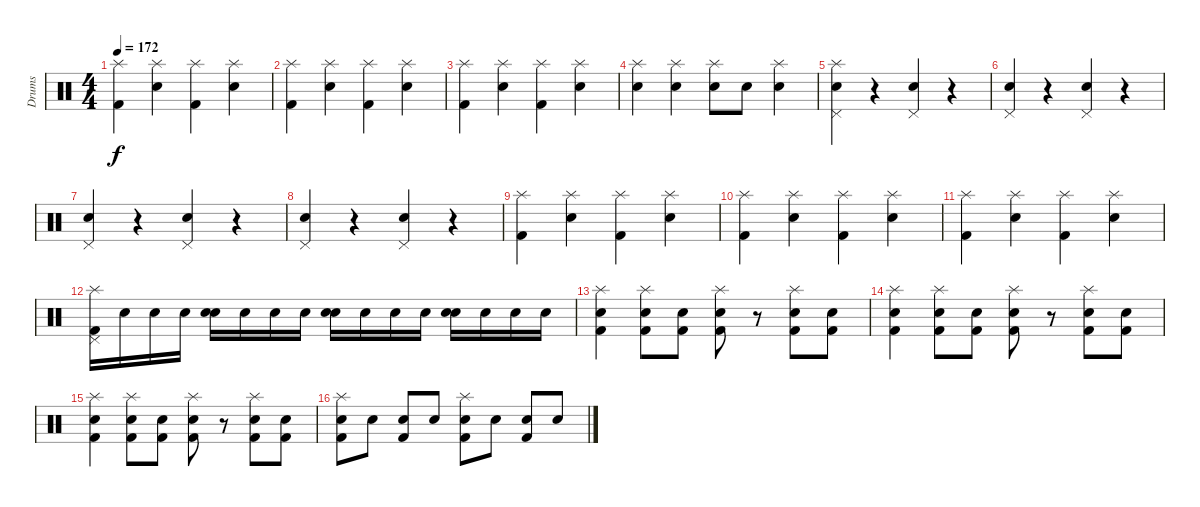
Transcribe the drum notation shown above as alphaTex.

\track ("Drums" "Drums") {instrument percussion}
\staff {score}
\articulation defaults
\ts (4 4)
\tempo 172
\clef neutral
\ks c
("Splash (hit)" "Kick (hit) 2").4{dy f} ("Splash (hit)" "Snare (hit) 2").4 ("Splash (hit)" "Kick (hit) 2").4 ("Splash (hit)" "Snare (hit) 2").4 |
("Splash (hit)" "Kick (hit) 2").4 ("Splash (hit)" "Snare (hit) 2").4 ("Splash (hit)" "Kick (hit) 2").4 ("Splash (hit)" "Snare (hit) 2").4 |
("Splash (hit)" "Kick (hit) 2").4 ("Splash (hit)" "Snare (hit) 2").4 ("Splash (hit)" "Kick (hit) 2").4 ("Splash (hit)" "Snare (hit) 2").4 |
("Splash (hit)" "Snare (hit) 2").4 ("Splash (hit)" "Snare (hit) 2").4 ("Splash (hit)" "Snare (hit) 2").8 "Snare (hit) 2".8 ("Splash (hit)" "Snare (hit) 2").4 |
("Splash (hit)" "Snare (hit) 2" "Pedal Hi-Hat (hit)").4 r.4 ("Snare (hit) 2" "Pedal Hi-Hat (hit)").4 r.4 |
("Snare (hit) 2" "Pedal Hi-Hat (hit)").4 r.4 ("Snare (hit) 2" "Pedal Hi-Hat (hit)").4 r.4 |
("Snare (hit) 2" "Pedal Hi-Hat (hit)").4 r.4 ("Snare (hit) 2" "Pedal Hi-Hat (hit)").4 r.4 |
("Snare (hit) 2" "Pedal Hi-Hat (hit)").4 r.4 ("Snare (hit) 2" "Pedal Hi-Hat (hit)").4 r.4 |
("Splash (hit)" "Kick (hit) 2").4 ("Splash (hit)" "Snare (hit) 2").4 ("Splash (hit)" "Kick (hit) 2").4 ("Splash (hit)" "Snare (hit) 2").4 |
("Splash (hit)" "Kick (hit) 2").4 ("Splash (hit)" "Snare (hit) 2").4 ("Splash (hit)" "Kick (hit) 2").4 ("Splash (hit)" "Snare (hit) 2").4 |
("Splash (hit)" "Kick (hit) 2").4 ("Splash (hit)" "Snare (hit) 2").4 ("Splash (hit)" "Kick (hit) 2").4 ("Splash (hit)" "Snare (hit) 2").4 |
("Splash (hit)" "Kick (hit) 2" "Pedal Hi-Hat (hit)").16 "Snare (hit) 2".16 "Snare (hit) 2".16 "Snare (hit) 2".16 ("Snare (hit) 2" "Electric Snare (hit)").16 "Snare (hit) 2".16 "Snare (hit) 2".16 "Snare (hit) 2".16 ("Snare (hit) 2" "Electric Snare (hit)").16 "Snare (hit) 2".16 "Snare (hit) 2".16 "Snare (hit) 2".16 ("Electric Snare (hit)" "Snare (hit) 2").16 "Snare (hit) 2".16 "Snare (hit) 2".16 "Snare (hit) 2".16 |
("Splash (hit)" "Kick (hit) 2" "Electric Snare (hit)").4 ("Splash (hit)" "Kick (hit) 2" "Electric Snare (hit)").8 ("Kick (hit) 2" "Electric Snare (hit)").8 ("Splash (hit)" "Kick (hit) 2" "Electric Snare (hit)").8 r.8 ("Splash (hit)" "Kick (hit) 2" "Electric Snare (hit)").8 ("Kick (hit) 2" "Electric Snare (hit)").8 |
("Splash (hit)" "Kick (hit) 2" "Electric Snare (hit)").4 ("Splash (hit)" "Kick (hit) 2" "Electric Snare (hit)").8 ("Kick (hit) 2" "Electric Snare (hit)").8 ("Splash (hit)" "Kick (hit) 2" "Electric Snare (hit)").8 r.8 ("Splash (hit)" "Kick (hit) 2" "Electric Snare (hit)").8 ("Kick (hit) 2" "Electric Snare (hit)").8 |
("Splash (hit)" "Kick (hit) 2" "Electric Snare (hit)").4 ("Splash (hit)" "Kick (hit) 2" "Electric Snare (hit)").8 ("Kick (hit) 2" "Electric Snare (hit)").8 ("Splash (hit)" "Kick (hit) 2" "Electric Snare (hit)").8 r.8 ("Splash (hit)" "Kick (hit) 2" "Electric Snare (hit)").8 ("Kick (hit) 2" "Electric Snare (hit)").8 |
("Splash (hit)" "Snare (hit) 2" "Kick (hit) 2").8 "Snare (hit) 2".8 ("Snare (hit) 2" "Kick (hit) 2").8 "Snare (hit) 2".8 ("Splash (hit)" "Snare (hit) 2" "Kick (hit) 2").8 "Snare (hit) 2".8 ("Snare (hit) 2" "Kick (hit) 2").8 "Snare (hit) 2".8
